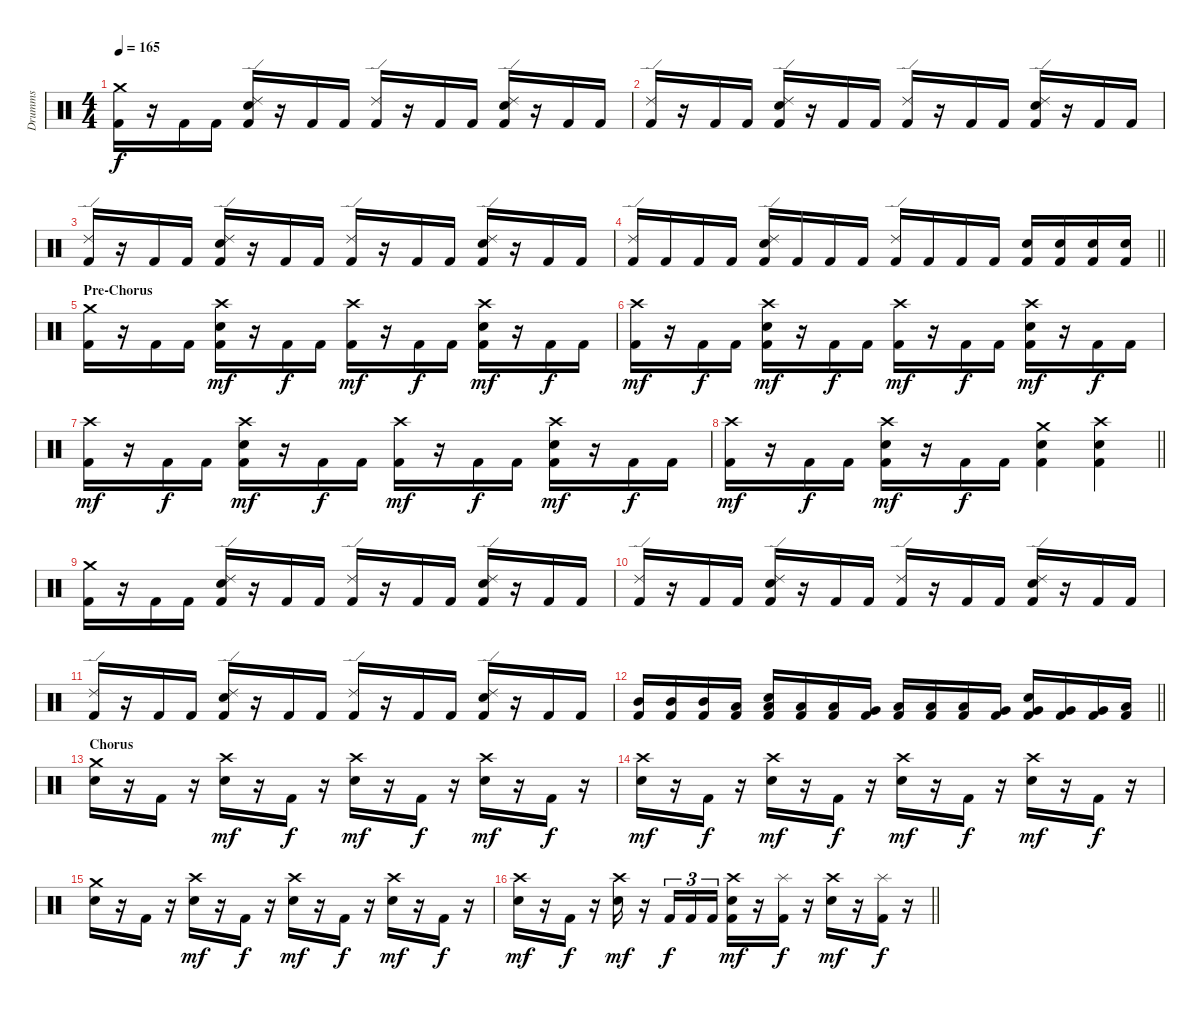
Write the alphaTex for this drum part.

\track ("Drumms" "Drumms") {instrument percussion}
\staff {score}
\articulation defaults
\ts (4 4)
\tempo 165
\clef neutral
\ks c
("Crash medium (hit)" "Kick (hit) 2").16{dy f} r.16 "Kick (hit) 2".16 "Kick (hit) 2".16 ("Ride (edge) 2" "Snare (hit) 2" "Kick (hit) 2").16 r.16 "Kick (hit) 2".16 "Kick (hit) 2".16 ("Ride (edge) 2" "Kick (hit) 2").16 r.16 "Kick (hit) 2".16 "Kick (hit) 2".16 ("Ride (edge) 2" "Snare (hit) 2" "Kick (hit) 2").16 r.16 "Kick (hit) 2".16 "Kick (hit) 2".16 |
("Ride (edge) 2" "Kick (hit) 2").16 r.16 "Kick (hit) 2".16 "Kick (hit) 2".16 ("Ride (edge) 2" "Snare (hit) 2" "Kick (hit) 2").16 r.16 "Kick (hit) 2".16 "Kick (hit) 2".16 ("Ride (edge) 2" "Kick (hit) 2").16 r.16 "Kick (hit) 2".16 "Kick (hit) 2".16 ("Ride (edge) 2" "Snare (hit) 2" "Kick (hit) 2").16 r.16 "Kick (hit) 2".16 "Kick (hit) 2".16 |
("Ride (edge) 2" "Kick (hit) 2").16 r.16 "Kick (hit) 2".16 "Kick (hit) 2".16 ("Ride (edge) 2" "Snare (hit) 2" "Kick (hit) 2").16 r.16 "Kick (hit) 2".16 "Kick (hit) 2".16 ("Ride (edge) 2" "Kick (hit) 2").16 r.16 "Kick (hit) 2".16 "Kick (hit) 2".16 ("Ride (edge) 2" "Snare (hit) 2" "Kick (hit) 2").16 r.16 "Kick (hit) 2".16 "Kick (hit) 2".16 |
\barLineRight lightlight
("Ride (edge) 2" "Kick (hit) 2").16 "Kick (hit) 2".16 "Kick (hit) 2".16 "Kick (hit) 2".16 ("Ride (edge) 2" "Snare (hit) 2" "Kick (hit) 2").16 "Kick (hit) 2".16 "Kick (hit) 2".16 "Kick (hit) 2".16 ("Ride (edge) 2" "Kick (hit) 2").16 "Kick (hit) 2".16 "Kick (hit) 2".16 "Kick (hit) 2".16 ("Snare (hit) 2" "Kick (hit) 2").16 ("Snare (hit) 2" "Kick (hit) 2").16 ("Snare (hit) 2" "Kick (hit) 2").16 ("Snare (hit) 2" "Kick (hit) 2").16 |
\section ("" "Pre-Chorus")
("Crash medium (hit)" "Kick (hit) 2").16 r.16 "Kick (hit) 2".16 "Kick (hit) 2".16 ("Crash high (hit)" "Snare (hit) 2" "Kick (hit) 2").16{dy mf} r.16 "Kick (hit) 2".16{dy f} "Kick (hit) 2".16 ("Crash high (hit)" "Kick (hit) 2").16{dy mf} r.16 "Kick (hit) 2".16{dy f} "Kick (hit) 2".16 ("Crash high (hit)" "Snare (hit) 2" "Kick (hit) 2").16{dy mf} r.16 "Kick (hit) 2".16{dy f} "Kick (hit) 2".16 |
("Crash high (hit)" "Kick (hit) 2").16{dy mf} r.16 "Kick (hit) 2".16{dy f} "Kick (hit) 2".16 ("Crash high (hit)" "Snare (hit) 2" "Kick (hit) 2").16{dy mf} r.16 "Kick (hit) 2".16{dy f} "Kick (hit) 2".16 ("Crash high (hit)" "Kick (hit) 2").16{dy mf} r.16 "Kick (hit) 2".16{dy f} "Kick (hit) 2".16 ("Crash high (hit)" "Snare (hit) 2" "Kick (hit) 2").16{dy mf} r.16 "Kick (hit) 2".16{dy f} "Kick (hit) 2".16 |
("Crash high (hit)" "Kick (hit) 2").16{dy mf} r.16 "Kick (hit) 2".16{dy f} "Kick (hit) 2".16 ("Crash high (hit)" "Snare (hit) 2" "Kick (hit) 2").16{dy mf} r.16 "Kick (hit) 2".16{dy f} "Kick (hit) 2".16 ("Crash high (hit)" "Kick (hit) 2").16{dy mf} r.16 "Kick (hit) 2".16{dy f} "Kick (hit) 2".16 ("Crash high (hit)" "Snare (hit) 2" "Kick (hit) 2").16{dy mf} r.16 "Kick (hit) 2".16{dy f} "Kick (hit) 2".16 |
\barLineRight lightlight
("Crash high (hit)" "Kick (hit) 2").16{dy mf} r.16 "Kick (hit) 2".16{dy f} "Kick (hit) 2".16 ("Crash high (hit)" "Snare (hit) 2" "Kick (hit) 2").16{dy mf} r.16 "Kick (hit) 2".16{dy f} "Kick (hit) 2".16 ("Crash medium (hit)" "Snare (hit) 2" "Kick (hit) 2").4 ("Crash high (hit)" "Snare (hit) 2" "Kick (hit) 2").4 |
("Crash medium (hit)" "Kick (hit) 2").16 r.16 "Kick (hit) 2".16 "Kick (hit) 2".16 ("Ride (edge) 2" "Snare (hit) 2" "Kick (hit) 2").16 r.16 "Kick (hit) 2".16 "Kick (hit) 2".16 ("Ride (edge) 2" "Kick (hit) 2").16 r.16 "Kick (hit) 2".16 "Kick (hit) 2".16 ("Ride (edge) 2" "Snare (hit) 2" "Kick (hit) 2").16 r.16 "Kick (hit) 2".16 "Kick (hit) 2".16 |
("Ride (edge) 2" "Kick (hit) 2").16 r.16 "Kick (hit) 2".16 "Kick (hit) 2".16 ("Ride (edge) 2" "Snare (hit) 2" "Kick (hit) 2").16 r.16 "Kick (hit) 2".16 "Kick (hit) 2".16 ("Ride (edge) 2" "Kick (hit) 2").16 r.16 "Kick (hit) 2".16 "Kick (hit) 2".16 ("Ride (edge) 2" "Snare (hit) 2" "Kick (hit) 2").16 r.16 "Kick (hit) 2".16 "Kick (hit) 2".16 |
("Ride (edge) 2" "Kick (hit) 2").16 r.16 "Kick (hit) 2".16 "Kick (hit) 2".16 ("Ride (edge) 2" "Snare (hit) 2" "Kick (hit) 2").16 r.16 "Kick (hit) 2".16 "Kick (hit) 2".16 ("Ride (edge) 2" "Kick (hit) 2").16 r.16 "Kick (hit) 2".16 "Kick (hit) 2".16 ("Ride (edge) 2" "Snare (hit) 2" "Kick (hit) 2").16 r.16 "Kick (hit) 2".16 "Kick (hit) 2".16 |
\barLineRight lightlight
("Mid Tom (hit)" "Kick (hit) 2").16 ("Mid Tom (hit)" "Kick (hit) 2").16 ("Mid Tom (hit)" "Kick (hit) 2").16 ("Low Tom (hit)" "Kick (hit) 2").16 ("Low Tom (hit)" "Snare (hit) 2" "Kick (hit) 2").16 ("Low Tom (hit)" "Kick (hit) 2").16 ("Low Tom (hit)" "Kick (hit) 2").16 ("Very Low Tom (hit)" "Kick (hit) 2").16 ("Low Tom (hit)" "Kick (hit) 2").16 ("Low Tom (hit)" "Kick (hit) 2").16 ("Low Tom (hit)" "Kick (hit) 2").16 ("Very Low Tom (hit)" "Kick (hit) 2").16 ("Very Low Tom (hit)" "Snare (hit) 2" "Kick (hit) 2").16 ("Very Low Tom (hit)" "Kick (hit) 2").16 ("Very Low Tom (hit)" "Kick (hit) 2").16 ("Low Floor Tom (hit)" "Kick (hit) 2").16 |
\section ("" "Chorus")
("Crash medium (hit)" "Snare (hit) 2").16 r.16 "Kick (hit) 2".16 r.16 ("Crash high (hit)" "Snare (hit) 2").16{dy mf} r.16 "Kick (hit) 2".16{dy f} r.16 ("Crash high (hit)" "Snare (hit) 2").16{dy mf} r.16 "Kick (hit) 2".16{dy f} r.16 ("Crash high (hit)" "Snare (hit) 2").16{dy mf} r.16 "Kick (hit) 2".16{dy f} r.16 |
("Crash high (hit)" "Snare (hit) 2").16{dy mf} r.16 "Kick (hit) 2".16{dy f} r.16 ("Crash high (hit)" "Snare (hit) 2").16{dy mf} r.16 "Kick (hit) 2".16{dy f} r.16 ("Crash high (hit)" "Snare (hit) 2").16{dy mf} r.16 "Kick (hit) 2".16{dy f} r.16 ("Crash high (hit)" "Snare (hit) 2").16{dy mf} r.16 "Kick (hit) 2".16{dy f} r.16 |
("Crash medium (hit)" "Snare (hit) 2").16 r.16 "Kick (hit) 2".16 r.16 ("Crash high (hit)" "Snare (hit) 2").16{dy mf} r.16 "Kick (hit) 2".16{dy f} r.16 ("Crash high (hit)" "Snare (hit) 2").16{dy mf} r.16 "Kick (hit) 2".16{dy f} r.16 ("Crash high (hit)" "Snare (hit) 2").16{dy mf} r.16 "Kick (hit) 2".16{dy f} r.16 |
\barLineRight lightlight
("Crash high (hit)" "Snare (hit) 2").16{dy mf} r.16 "Kick (hit) 2".16{dy f} r.16 ("Crash high (hit)" "Snare (hit) 2").16{dy mf} r.16 "Kick (hit) 2".16{tu (3 2) dy f} "Kick (hit) 2".16{tu (3 2)} "Kick (hit) 2".16{tu (3 2)} ("Crash high (hit)" "Snare (hit) 2" "Kick (hit) 2").16{dy mf} r.16 ("Splash (hit)" "Kick (hit) 2").16{dy f} r.16 ("Crash high (hit)" "Snare (hit) 2").16{dy mf} r.16 ("Splash (hit)" "Kick (hit) 2").16{dy f} r.16
